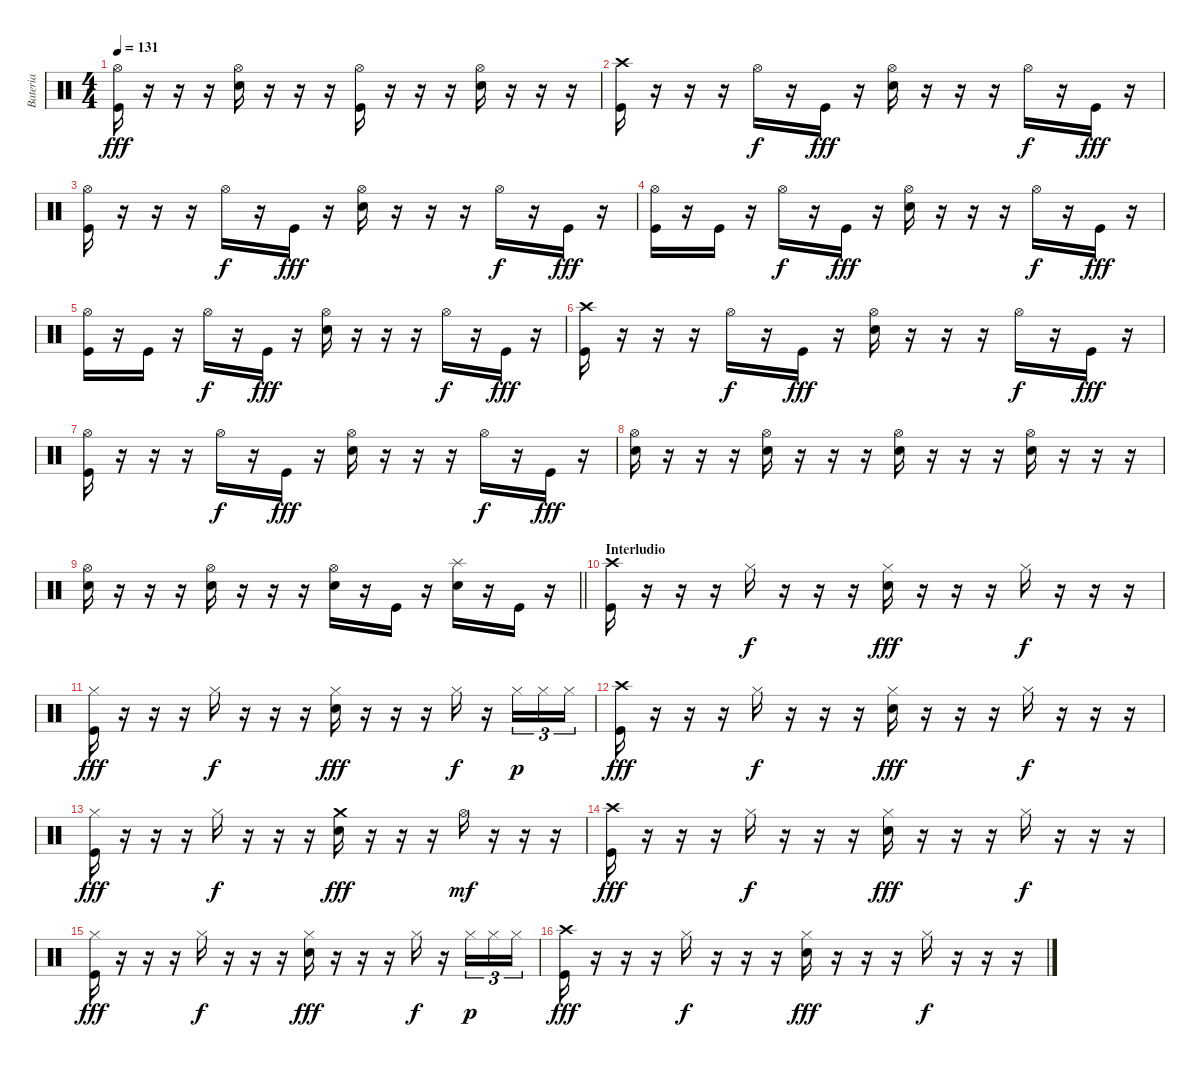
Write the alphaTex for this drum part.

\track ("Bateria" "Bateria") {instrument percussion}
\staff {score}
\articulation defaults
\ts (4 4)
\tempo 131
\clef neutral
\ks c
("Hi-Hat (open)" "Kick (hit)").16{dy fff} r.16 r.16 r.16 ("Hi-Hat (open)" "Electric Snare (hit)").16 r.16 r.16 r.16 ("Hi-Hat (open)" "Kick (hit)").16 r.16 r.16 r.16 ("Hi-Hat (open)" "Electric Snare (hit)").16 r.16 r.16 r.16 |
("Crash high (hit)" "Kick (hit)").16 r.16 r.16 r.16 "Hi-Hat (open)".16{dy f} r.16 "Kick (hit)".16{dy fff} r.16 ("Hi-Hat (open)" "Electric Snare (hit)").16 r.16 r.16 r.16 "Hi-Hat (open)".16{dy f} r.16 "Kick (hit)".16{dy fff} r.16 |
("Hi-Hat (open)" "Kick (hit)").16 r.16 r.16 r.16 "Hi-Hat (open)".16{dy f} r.16 "Kick (hit)".16{dy fff} r.16 ("Hi-Hat (open)" "Electric Snare (hit)").16 r.16 r.16 r.16 "Hi-Hat (open)".16{dy f} r.16 "Kick (hit)".16{dy fff} r.16 |
("Hi-Hat (open)" "Kick (hit)").16 r.16 "Kick (hit)".16 r.16 "Hi-Hat (open)".16{dy f} r.16 "Kick (hit)".16{dy fff} r.16 ("Hi-Hat (open)" "Electric Snare (hit)").16 r.16 r.16 r.16 "Hi-Hat (open)".16{dy f} r.16 "Kick (hit)".16{dy fff} r.16 |
("Hi-Hat (open)" "Kick (hit)").16 r.16 "Kick (hit)".16 r.16 "Hi-Hat (open)".16{dy f} r.16 "Kick (hit)".16{dy fff} r.16 ("Hi-Hat (open)" "Electric Snare (hit)").16 r.16 r.16 r.16 "Hi-Hat (open)".16{dy f} r.16 "Kick (hit)".16{dy fff} r.16 |
("Crash high (hit)" "Kick (hit)").16 r.16 r.16 r.16 "Hi-Hat (open)".16{dy f} r.16 "Kick (hit)".16{dy fff} r.16 ("Hi-Hat (open)" "Electric Snare (hit)").16 r.16 r.16 r.16 "Hi-Hat (open)".16{dy f} r.16 "Kick (hit)".16{dy fff} r.16 |
("Hi-Hat (open)" "Kick (hit)").16 r.16 r.16 r.16 "Hi-Hat (open)".16{dy f} r.16 "Kick (hit)".16{dy fff} r.16 ("Hi-Hat (open)" "Electric Snare (hit)").16 r.16 r.16 r.16 "Hi-Hat (open)".16{dy f} r.16 "Kick (hit)".16{dy fff} r.16 |
("Hi-Hat (open)" "Electric Snare (hit)").16 r.16 r.16 r.16 ("Hi-Hat (open)" "Electric Snare (hit)").16 r.16 r.16 r.16 ("Hi-Hat (open)" "Electric Snare (hit)").16 r.16 r.16 r.16 ("Hi-Hat (open)" "Electric Snare (hit)").16 r.16 r.16 r.16 |
\barLineRight lightlight
("Hi-Hat (open)" "Electric Snare (hit)").16 r.16 r.16 r.16 ("Hi-Hat (open)" "Electric Snare (hit)").16 r.16 r.16 r.16 ("Hi-Hat (open)" "Electric Snare (hit)").16 r.16 "Kick (hit)".16 r.16 ("Splash (hit)" "Electric Snare (hit)").16 r.16 "Kick (hit)".16 r.16 |
\section ("" "Interludio")
("Crash high (hit)" "Kick (hit)").16 r.16 r.16 r.16 "Hi-Hat (closed)".16{dy f} r.16 r.16 r.16 ("Hi-Hat (closed)" "Electric Snare (hit)").16{dy fff} r.16 r.16 r.16 "Hi-Hat (closed)".16{dy f} r.16 r.16 r.16 |
("Hi-Hat (closed)" "Kick (hit)").16{dy fff} r.16 r.16 r.16 "Hi-Hat (closed)".16{dy f} r.16 r.16 r.16 ("Hi-Hat (closed)" "Electric Snare (hit)").16{dy fff} r.16 r.16 r.16 "Hi-Hat (closed)".16{dy f} r.16 "Hi-Hat (closed)".16{tu (3 2) dy p} "Hi-Hat (closed)".16{tu (3 2)} "Hi-Hat (closed)".16{tu (3 2)} |
("Crash high (hit)" "Kick (hit)").16{dy fff} r.16 r.16 r.16 "Hi-Hat (closed)".16{dy f} r.16 r.16 r.16 ("Hi-Hat (closed)" "Electric Snare (hit)").16{dy fff} r.16 r.16 r.16 "Hi-Hat (closed)".16{dy f} r.16 r.16 r.16 |
("Hi-Hat (closed)" "Kick (hit)").16{dy fff} r.16 r.16 r.16 "Hi-Hat (closed)".16{dy f} r.16 r.16 r.16 ("Crash medium (hit)" "Electric Snare (hit)").16{dy fff} r.16 r.16 r.16 "Hi-Hat (open)".16{dy mf} r.16 r.16 r.16 |
("Crash high (hit)" "Kick (hit)").16{dy fff} r.16 r.16 r.16 "Hi-Hat (closed)".16{dy f} r.16 r.16 r.16 ("Hi-Hat (closed)" "Electric Snare (hit)").16{dy fff} r.16 r.16 r.16 "Hi-Hat (closed)".16{dy f} r.16 r.16 r.16 |
("Hi-Hat (closed)" "Kick (hit)").16{dy fff} r.16 r.16 r.16 "Hi-Hat (closed)".16{dy f} r.16 r.16 r.16 ("Hi-Hat (closed)" "Electric Snare (hit)").16{dy fff} r.16 r.16 r.16 "Hi-Hat (closed)".16{dy f} r.16 "Hi-Hat (closed)".16{tu (3 2) dy p} "Hi-Hat (closed)".16{tu (3 2)} "Hi-Hat (closed)".16{tu (3 2)} |
("Crash high (hit)" "Kick (hit)").16{dy fff} r.16 r.16 r.16 "Hi-Hat (closed)".16{dy f} r.16 r.16 r.16 ("Hi-Hat (closed)" "Electric Snare (hit)").16{dy fff} r.16 r.16 r.16 "Hi-Hat (closed)".16{dy f} r.16 r.16 r.16
